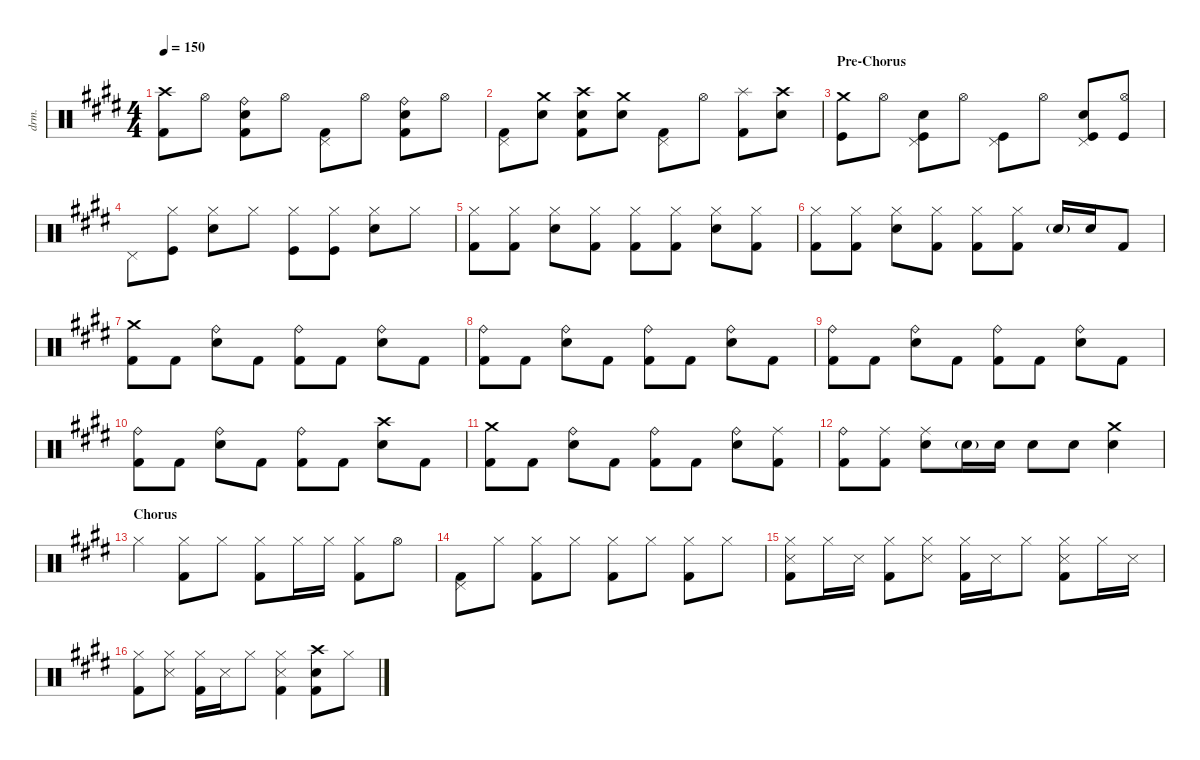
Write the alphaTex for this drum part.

\defaultSystemsLayout 4
\hideDynamics
\bracketExtendMode nobrackets
\otherSystemsTrackNameOrientation horizontal
\track ("Drums - S. Copeland" "drm.") {instrument percussion}
\staff {score}
\articulation defaults
\ts (4 4)
\tempo 150
\clef neutral
\ks c#minor
("Kick (hit) 2"{acc forcenatural} "Crash high (hit)"{acc forcenatural}).8{dy mf beam Down} "Hi-Hat (open)"{acc forcenatural}.8{beam Down} ("Kick (hit) 2"{acc forcenatural} "Ride (bell)"{acc forcenatural} "Snare (hit) 2"{acc forcenatural}).8{beam Down} "Hi-Hat (open)"{acc forcenatural}.8{beam Down} ("Pedal Hi-Hat (hit)"{acc forcenatural} "Kick (hit) 2"{acc forcenatural}).8{beam Down} "Hi-Hat (open)"{acc forcenatural}.8{beam Down} ("Kick (hit) 2"{acc forcenatural} "Ride (bell)"{acc forcenatural} "Snare (hit) 2"{acc forcenatural}).8{beam Down} "Hi-Hat (open)"{acc forcenatural}.8{beam Down} |
("Pedal Hi-Hat (hit)"{acc forcenatural} "Kick (hit) 2"{acc forcenatural}).8{beam Down} ("Crash medium (hit)"{acc forcenatural} "Snare (hit) 2"{acc forcenatural}).8{beam Down} ("Kick (hit) 2"{acc forcenatural} "Snare (hit) 2"{acc forcenatural} "Crash high (hit)"{acc forcenatural}).8{beam Down} ("Crash medium (hit)"{acc forcenatural} "Snare (hit) 2"{acc forcenatural}).8{beam Down} ("Pedal Hi-Hat (hit)"{acc forcenatural} "Kick (hit) 2"{acc forcenatural}).8{beam Down} "Hi-Hat (open)"{acc forcenatural}.8{beam Down} ("Kick (hit) 2"{acc forcenatural} "Splash (hit)"{acc forcenatural}).8{beam Down} ("Snare (hit) 2"{acc forcenatural} "Crash high (hit)"{acc forcenatural}).8{beam Down} |
\section ("" "Pre-Chorus")
("Kick (hit)"{acc forcenatural} "Crash medium (hit)"{acc forcenatural}).8{beam Down} "Hi-Hat (open)"{acc forcenatural}.8{beam Down} ("Pedal Hi-Hat (hit)"{acc forcenatural} "Kick (hit)"{acc forcenatural} "Snare (hit) 2"{acc forcenatural}).8{beam Down} "Hi-Hat (open)"{acc forcenatural}.8{beam Down} ("Pedal Hi-Hat (hit)"{acc forcenatural} "Kick (hit)"{acc forcenatural}).8{beam Down} "Hi-Hat (open)"{acc forcenatural}.8{beam Down} ("Pedal Hi-Hat (hit)"{acc forcenatural} "Kick (hit)"{acc forcenatural} "Snare (hit) 2"{acc forcenatural}).8{beam Up} ("Hi-Hat (open)"{acc forcenatural} "Kick (hit)"{acc forcenatural}).8{beam Up} |
"Pedal Hi-Hat (hit)"{acc forcenatural}.8{beam Down} ("Kick (hit)"{acc forcenatural} "Hi-Hat (closed)"{acc forcenatural}).8{beam Down} ("Hi-Hat (closed)"{acc forcenatural} "Snare (hit) 2"{acc forcenatural}).8{beam Down} "Hi-Hat (closed)"{acc forcenatural}.8{beam Down} ("Hi-Hat (closed)"{acc forcenatural} "Kick (hit)"{acc forcenatural}).8{beam Down} ("Hi-Hat (closed)"{acc forcenatural} "Kick (hit)"{acc forcenatural}).8{beam Down} ("Hi-Hat (closed)"{acc forcenatural} "Snare (hit) 2"{acc forcenatural}).8{beam Down} "Hi-Hat (closed)"{acc forcenatural}.8{beam Down} |
("Hi-Hat (closed)"{acc forcenatural} "Kick (hit) 2"{acc forcenatural}).8{beam Down} ("Hi-Hat (closed)"{acc forcenatural} "Kick (hit) 2"{acc forcenatural}).8{beam Down} ("Hi-Hat (closed)"{acc forcenatural} "Snare (hit) 2"{acc forcenatural}).8{beam Down} ("Hi-Hat (closed)"{acc forcenatural} "Kick (hit) 2"{acc forcenatural}).8{beam Down} ("Hi-Hat (closed)"{acc forcenatural} "Kick (hit) 2"{acc forcenatural}).8{beam Down} ("Hi-Hat (closed)"{acc forcenatural} "Kick (hit) 2"{acc forcenatural}).8{beam Down} ("Hi-Hat (closed)"{acc forcenatural} "Snare (hit) 2"{acc forcenatural}).8{beam Down} ("Hi-Hat (closed)"{acc forcenatural} "Kick (hit) 2"{acc forcenatural}).8{beam Down} |
("Hi-Hat (closed)"{acc forcenatural} "Kick (hit) 2"{acc forcenatural}).8{beam Down} ("Hi-Hat (closed)"{acc forcenatural} "Kick (hit) 2"{acc forcenatural}).8{beam Down} ("Hi-Hat (closed)"{acc forcenatural} "Snare (hit) 2"{acc forcenatural}).8{beam Down} ("Hi-Hat (closed)"{acc forcenatural} "Kick (hit) 2"{acc forcenatural}).8{beam Down} ("Hi-Hat (closed)"{acc forcenatural} "Kick (hit) 2"{acc forcenatural}).8{beam Down} ("Hi-Hat (closed)"{acc forcenatural} "Kick (hit) 2"{acc forcenatural}).8{beam Down} "Snare (hit) 2"{g acc forcenatural}.16{beam Up} "Snare (hit) 2"{acc forcenatural}.16{beam Up} "Kick (hit) 2"{acc forcenatural}.8{beam Up} |
("Kick (hit) 2"{acc forcenatural} "Crash medium (hit)"{acc forcenatural}).8{beam Down} "Kick (hit) 2"{acc forcenatural}.8{beam Down} ("Snare (hit) 2"{acc forcenatural} "Ride (bell)"{acc forcenatural}).8{beam Down} "Kick (hit) 2"{acc forcenatural}.8{beam Down} ("Kick (hit) 2"{acc forcenatural} "Ride (bell)"{acc forcenatural}).8{beam Down} "Kick (hit) 2"{acc forcenatural}.8{beam Down} ("Snare (hit) 2"{acc forcenatural} "Ride (bell)"{acc forcenatural}).8{beam Down} "Kick (hit) 2"{acc forcenatural}.8{beam Down} |
("Kick (hit) 2"{acc forcenatural} "Ride (bell)"{acc forcenatural}).8{beam Down} "Kick (hit) 2"{acc forcenatural}.8{beam Down} ("Snare (hit) 2"{acc forcenatural} "Ride (bell)"{acc forcenatural}).8{beam Down} "Kick (hit) 2"{acc forcenatural}.8{beam Down} ("Kick (hit) 2"{acc forcenatural} "Ride (bell)"{acc forcenatural}).8{beam Down} "Kick (hit) 2"{acc forcenatural}.8{beam Down} ("Snare (hit) 2"{acc forcenatural} "Ride (bell)"{acc forcenatural}).8{beam Down} "Kick (hit) 2"{acc forcenatural}.8{beam Down} |
("Kick (hit) 2"{acc forcenatural} "Ride (bell)"{acc forcenatural}).8{beam Down} "Kick (hit) 2"{acc forcenatural}.8{beam Down} ("Snare (hit) 2"{acc forcenatural} "Ride (bell)"{acc forcenatural}).8{beam Down} "Kick (hit) 2"{acc forcenatural}.8{beam Down} ("Kick (hit) 2"{acc forcenatural} "Ride (bell)"{acc forcenatural}).8{beam Down} "Kick (hit) 2"{acc forcenatural}.8{beam Down} ("Snare (hit) 2"{acc forcenatural} "Ride (bell)"{acc forcenatural}).8{beam Down} "Kick (hit) 2"{acc forcenatural}.8{beam Down} |
("Kick (hit) 2"{acc forcenatural} "Ride (bell)"{acc forcenatural}).8{beam Down} "Kick (hit) 2"{acc forcenatural}.8{beam Down} ("Snare (hit) 2"{acc forcenatural} "Ride (bell)"{acc forcenatural}).8{beam Down} "Kick (hit) 2"{acc forcenatural}.8{beam Down} ("Kick (hit) 2"{acc forcenatural} "Ride (bell)"{acc forcenatural}).8{beam Down} "Kick (hit) 2"{acc forcenatural}.8{beam Down} ("Snare (hit) 2"{acc forcenatural} "Crash high (hit)"{acc forcenatural}).8{beam Down} "Kick (hit) 2"{acc forcenatural}.8{beam Down} |
("Kick (hit) 2"{acc forcenatural} "Crash medium (hit)"{acc forcenatural}).8{beam Down} "Kick (hit) 2"{acc forcenatural}.8{beam Down} ("Snare (hit) 2"{acc forcenatural} "Ride (bell)"{acc forcenatural}).8{beam Down} "Kick (hit) 2"{acc forcenatural}.8{beam Down} ("Kick (hit) 2"{acc forcenatural} "Ride (bell)"{acc forcenatural}).8{beam Down} "Kick (hit) 2"{acc forcenatural}.8{beam Down} ("Snare (hit) 2"{acc forcenatural} "Ride (bell)"{acc forcenatural}).8{beam Down} ("Kick (hit) 2"{acc forcenatural} "Ride (middle)"{acc forcenatural}).8{beam Down} |
("Ride (bell)"{acc forcenatural} "Kick (hit) 2"{acc forcenatural}).8{beam Down} ("Ride (middle)"{acc forcenatural} "Kick (hit) 2"{acc forcenatural}).8{beam Down} ("Ride (middle)"{acc forcenatural} "Snare (hit) 2"{acc forcenatural}).8{beam Down} "Snare (hit) 2"{g acc forcenatural}.16{beam Down} "Snare (hit) 2"{acc forcenatural}.16{beam Down} "Snare (hit) 2"{acc forcenatural}.8{beam Down} "Snare (hit) 2"{acc forcenatural}.8{beam Down} ("Snare (hit) 2"{acc forcenatural} "Crash medium (hit)"{acc forcenatural}).4{beam Down} |
\section ("" "Chorus")
"Hi-Hat (closed)"{acc forcenatural}.4{beam Down} ("Hi-Hat (closed)"{acc forcenatural} "Kick (hit) 2"{acc forcenatural}).8{beam Down} "Hi-Hat (closed)"{acc forcenatural}.8{beam Down} ("Hi-Hat (closed)"{acc forcenatural} "Kick (hit) 2"{acc forcenatural}).8{beam Down} "Hi-Hat (closed)"{acc forcenatural}.16{beam Down} "Hi-Hat (closed)"{acc forcenatural}.16{beam Down} ("Hi-Hat (closed)"{acc forcenatural} "Kick (hit) 2"{acc forcenatural}).8{beam Down} "Hi-Hat (open)"{acc forcenatural}.8{beam Down} |
("Pedal Hi-Hat (hit)"{acc forcenatural} "Kick (hit) 2"{acc forcenatural}).8{beam Down} "Hi-Hat (closed)"{acc forcenatural}.8{beam Down} ("Hi-Hat (closed)"{acc forcenatural} "Kick (hit) 2"{acc forcenatural}).8{beam Down} "Hi-Hat (closed)"{acc forcenatural}.8{beam Down} ("Hi-Hat (closed)"{acc forcenatural} "Kick (hit) 2"{acc forcenatural}).8{beam Down} "Hi-Hat (closed)"{acc forcenatural}.8{beam Down} ("Hi-Hat (closed)"{acc forcenatural} "Kick (hit) 2"{acc forcenatural}).8{beam Down} "Hi-Hat (closed)"{acc forcenatural}.8{beam Down} |
("Hi-Hat (closed)"{acc forcenatural} "Kick (hit) 2"{acc forcenatural} "Snare (side stick) 3"{acc forcenatural}).8{beam Down} "Hi-Hat (closed)"{acc forcenatural}.16{beam Down} "Snare (side stick) 3"{acc forcenatural}.16{beam Down} ("Hi-Hat (closed)"{acc forcenatural} "Kick (hit) 2"{acc forcenatural}).8{beam Down} ("Hi-Hat (closed)"{acc forcenatural} "Snare (side stick) 3"{acc forcenatural}).8{beam Down} ("Hi-Hat (closed)"{acc forcenatural} "Kick (hit) 2"{acc forcenatural}).16{beam Down} "Snare (side stick) 3"{acc forcenatural}.16{beam Down} "Hi-Hat (closed)"{acc forcenatural}.8{beam Down} ("Hi-Hat (closed)"{acc forcenatural} "Kick (hit) 2"{acc forcenatural} "Snare (side stick) 3"{acc forcenatural}).8{beam Down} "Hi-Hat (closed)"{acc forcenatural}.16{beam Down} "Snare (side stick) 3"{acc forcenatural}.16{beam Down} |
("Hi-Hat (closed)"{acc forcenatural} "Kick (hit) 2"{acc forcenatural}).8{beam Down} ("Hi-Hat (closed)"{acc forcenatural} "Snare (side stick) 3"{acc forcenatural}).8{beam Down} ("Hi-Hat (closed)"{acc forcenatural} "Kick (hit) 2"{acc forcenatural}).16{beam Down} "Snare (side stick) 3"{acc forcenatural}.16{beam Down} "Hi-Hat (closed)"{acc forcenatural}.8{beam Down} ("Hi-Hat (closed)"{acc forcenatural} "Kick (hit) 2"{acc forcenatural} "Snare (side stick) 3"{acc forcenatural}).4{beam Down} ("Kick (hit) 2"{acc forcenatural} "Crash high (hit)"{acc forcenatural} "Snare (hit) 2"{acc forcenatural}).8{beam Down} "Hi-Hat (closed)"{acc forcenatural}.8{beam Down}
